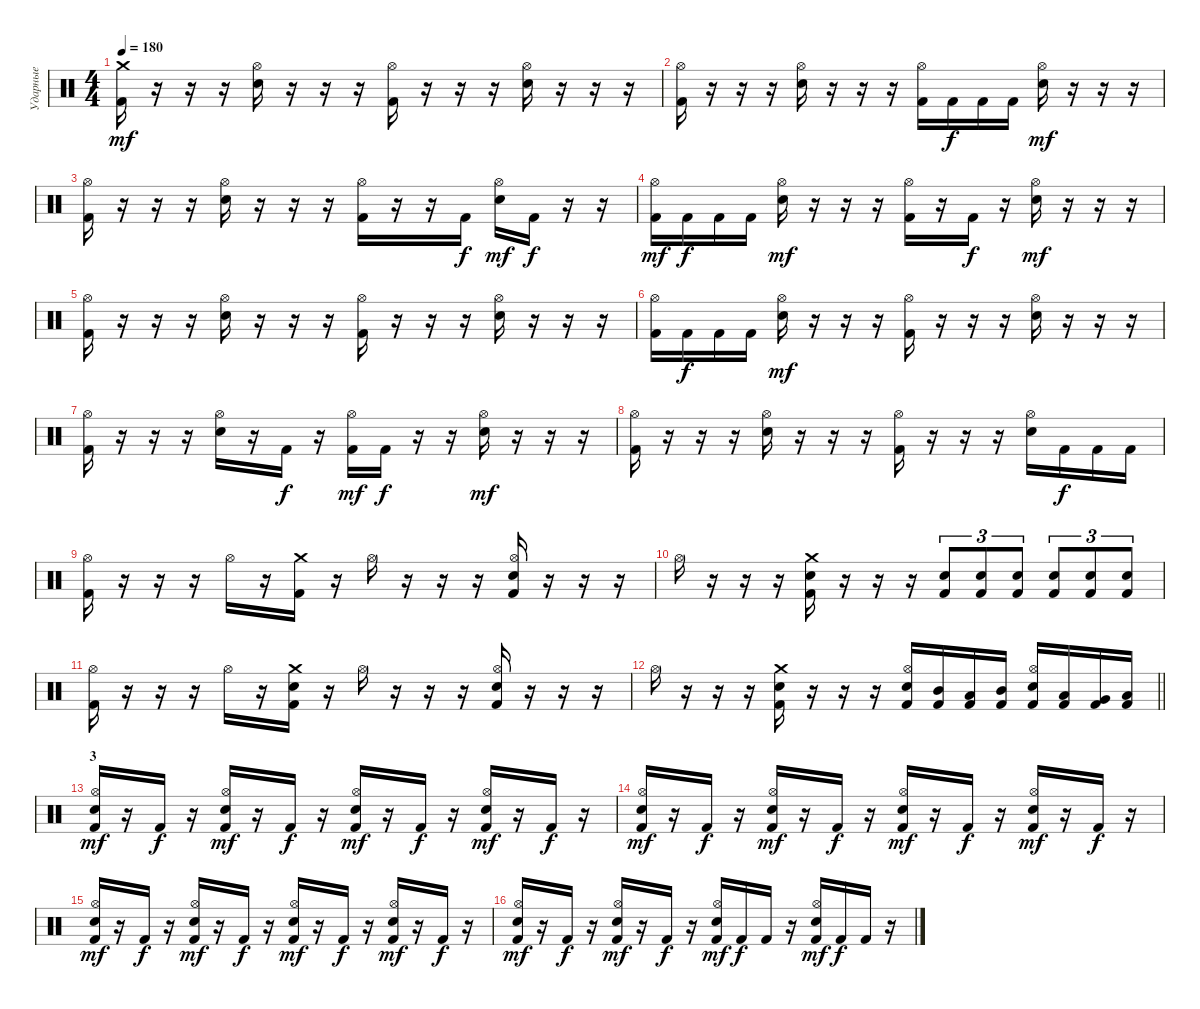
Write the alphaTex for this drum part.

\track ("Ударные" "Ударные") {instrument percussion}
\staff {score}
\articulation defaults
\ts (4 4)
\tempo 180
\clef neutral
\ks c
("Crash medium (hit)" "Kick (hit) 2").16{dy mf} r.16 r.16 r.16 ("Hi-Hat (open)" "Snare (hit) 2").16 r.16 r.16 r.16 ("Hi-Hat (open)" "Kick (hit) 2").16 r.16 r.16 r.16 ("Hi-Hat (open)" "Snare (hit) 2").16 r.16 r.16 r.16 |
("Hi-Hat (open)" "Kick (hit) 2").16 r.16 r.16 r.16 ("Hi-Hat (open)" "Snare (hit) 2").16 r.16 r.16 r.16 ("Hi-Hat (open)" "Kick (hit) 2").16 "Kick (hit) 2".16{dy f} "Kick (hit) 2".16 "Kick (hit) 2".16 ("Hi-Hat (open)" "Snare (hit) 2").16{dy mf} r.16 r.16 r.16 |
("Hi-Hat (open)" "Kick (hit) 2").16 r.16 r.16 r.16 ("Hi-Hat (open)" "Snare (hit) 2").16 r.16 r.16 r.16 ("Hi-Hat (open)" "Kick (hit) 2").16 r.16 r.16 "Kick (hit) 2".16{dy f} ("Hi-Hat (open)" "Snare (hit) 2").16{dy mf} "Kick (hit) 2".16{dy f} r.16 r.16 |
("Hi-Hat (open)" "Kick (hit) 2").16{dy mf} "Kick (hit) 2".16{dy f} "Kick (hit) 2".16 "Kick (hit) 2".16 ("Hi-Hat (open)" "Snare (hit) 2").16{dy mf} r.16 r.16 r.16 ("Hi-Hat (open)" "Kick (hit) 2").16 r.16 "Kick (hit) 2".16{dy f} r.16 ("Hi-Hat (open)" "Snare (hit) 2").16{dy mf} r.16 r.16 r.16 |
("Hi-Hat (open)" "Kick (hit) 2").16 r.16 r.16 r.16 ("Hi-Hat (open)" "Snare (hit) 2").16 r.16 r.16 r.16 ("Hi-Hat (open)" "Kick (hit) 2").16 r.16 r.16 r.16 ("Hi-Hat (open)" "Snare (hit) 2").16 r.16 r.16 r.16 |
("Hi-Hat (open)" "Kick (hit) 2").16 "Kick (hit) 2".16{dy f} "Kick (hit) 2".16 "Kick (hit) 2".16 ("Hi-Hat (open)" "Snare (hit) 2").16{dy mf} r.16 r.16 r.16 ("Hi-Hat (open)" "Kick (hit) 2").16 r.16 r.16 r.16 ("Hi-Hat (open)" "Snare (hit) 2").16 r.16 r.16 r.16 |
("Hi-Hat (open)" "Kick (hit) 2").16 r.16 r.16 r.16 ("Hi-Hat (open)" "Snare (hit) 2").16 r.16 "Kick (hit) 2".16{dy f} r.16 ("Hi-Hat (open)" "Kick (hit) 2").16{dy mf} "Kick (hit) 2".16{dy f} r.16 r.16 ("Hi-Hat (open)" "Snare (hit) 2").16{dy mf} r.16 r.16 r.16 |
("Hi-Hat (open)" "Kick (hit) 2").16 r.16 r.16 r.16 ("Hi-Hat (open)" "Snare (hit) 2").16 r.16 r.16 r.16 ("Hi-Hat (open)" "Kick (hit) 2").16 r.16 r.16 r.16 ("Hi-Hat (open)" "Snare (hit) 2").16 "Kick (hit) 2".16{dy f} "Kick (hit) 2".16 "Kick (hit) 2".16 |
("Hi-Hat (open)" "Kick (hit) 2").16 r.16 r.16 r.16 "Hi-Hat (open)".16 r.16 ("Crash medium (hit)" "Kick (hit) 2").16 r.16 "Hi-Hat (open)".16 r.16 r.16 r.16 ("Hi-Hat (open)" "Snare (hit) 2" "Kick (hit) 2").16 r.16 r.16 r.16 |
"Hi-Hat (open)".16 r.16 r.16 r.16 ("Crash medium (hit)" "Snare (hit) 2" "Kick (hit) 2").16 r.16 r.16 r.16 ("Snare (hit) 2" "Kick (hit) 2").8{tu (3 2)} ("Snare (hit) 2" "Kick (hit) 2").8{tu (3 2)} ("Snare (hit) 2" "Kick (hit) 2").8{tu (3 2)} ("Snare (hit) 2" "Kick (hit) 2").8{tu (3 2)} ("Snare (hit) 2" "Kick (hit) 2").8{tu (3 2)} ("Snare (hit) 2" "Kick (hit) 2").8{tu (3 2)} |
("Hi-Hat (open)" "Kick (hit) 2").16 r.16 r.16 r.16 "Hi-Hat (open)".16 r.16 ("Crash medium (hit)" "Snare (hit) 2" "Kick (hit) 2").16 r.16 "Hi-Hat (open)".16 r.16 r.16 r.16 ("Hi-Hat (open)" "Snare (hit) 2" "Kick (hit) 2").16 r.16 r.16 r.16 |
\barLineRight lightlight "Hi-Hat (open)".16
r.16 r.16 r.16 ("Crash medium (hit)" "Snare (hit) 2" "Kick (hit) 2").16 r.16 r.16 r.16 ("Hi-Hat (open)" "Snare (hit) 2" "Kick (hit) 2").16 ("Mid Tom (hit)" "Kick (hit) 2").16 ("Low Tom (hit)" "Kick (hit) 2").16 ("Mid Tom (hit)" "Kick (hit) 2").16 ("Hi-Hat (open)" "Snare (hit) 2" "Kick (hit) 2").16 ("Low Tom (hit)" "Kick (hit) 2").16 ("Very Low Tom (hit)" "Kick (hit) 2").16 ("Low Tom (hit)" "Kick (hit) 2").16 |
\section ("" "3")
("Hi-Hat (open)" "Snare (hit) 2" "Kick (hit) 2").16{dy mf} r.16 "Kick (hit) 2".16{dy f} r.16 ("Hi-Hat (open)" "Snare (hit) 2" "Kick (hit) 2").16{dy mf} r.16 "Kick (hit) 2".16{dy f} r.16 ("Hi-Hat (open)" "Snare (hit) 2" "Kick (hit) 2").16{dy mf} r.16 "Kick (hit) 2".16{dy f} r.16 ("Hi-Hat (open)" "Snare (hit) 2" "Kick (hit) 2").16{dy mf} r.16 "Kick (hit) 2".16{dy f} r.16 |
("Hi-Hat (open)" "Snare (hit) 2" "Kick (hit) 2").16{dy mf} r.16 "Kick (hit) 2".16{dy f} r.16 ("Hi-Hat (open)" "Snare (hit) 2" "Kick (hit) 2").16{dy mf} r.16 "Kick (hit) 2".16{dy f} r.16 ("Hi-Hat (open)" "Snare (hit) 2" "Kick (hit) 2").16{dy mf} r.16 "Kick (hit) 2".16{dy f} r.16 ("Hi-Hat (open)" "Snare (hit) 2" "Kick (hit) 2").16{dy mf} r.16 "Kick (hit) 2".16{dy f} r.16 |
("Hi-Hat (open)" "Snare (hit) 2" "Kick (hit) 2").16{dy mf} r.16 "Kick (hit) 2".16{dy f} r.16 ("Hi-Hat (open)" "Snare (hit) 2" "Kick (hit) 2").16{dy mf} r.16 "Kick (hit) 2".16{dy f} r.16 ("Hi-Hat (open)" "Snare (hit) 2" "Kick (hit) 2").16{dy mf} r.16 "Kick (hit) 2".16{dy f} r.16 ("Hi-Hat (open)" "Snare (hit) 2" "Kick (hit) 2").16{dy mf} r.16 "Kick (hit) 2".16{dy f} r.16 |
("Hi-Hat (open)" "Snare (hit) 2" "Kick (hit) 2").16{dy mf} r.16 "Kick (hit) 2".16{dy f} r.16 ("Hi-Hat (open)" "Snare (hit) 2" "Kick (hit) 2").16{dy mf} r.16 "Kick (hit) 2".16{dy f} r.16 ("Hi-Hat (open)" "Snare (hit) 2" "Kick (hit) 2").16{dy mf} "Kick (hit) 2".16{dy f} "Kick (hit) 2".16 r.16 ("Hi-Hat (open)" "Snare (hit) 2" "Kick (hit) 2").16{dy mf} "Kick (hit) 2".16{dy f} "Kick (hit) 2".16 r.16
